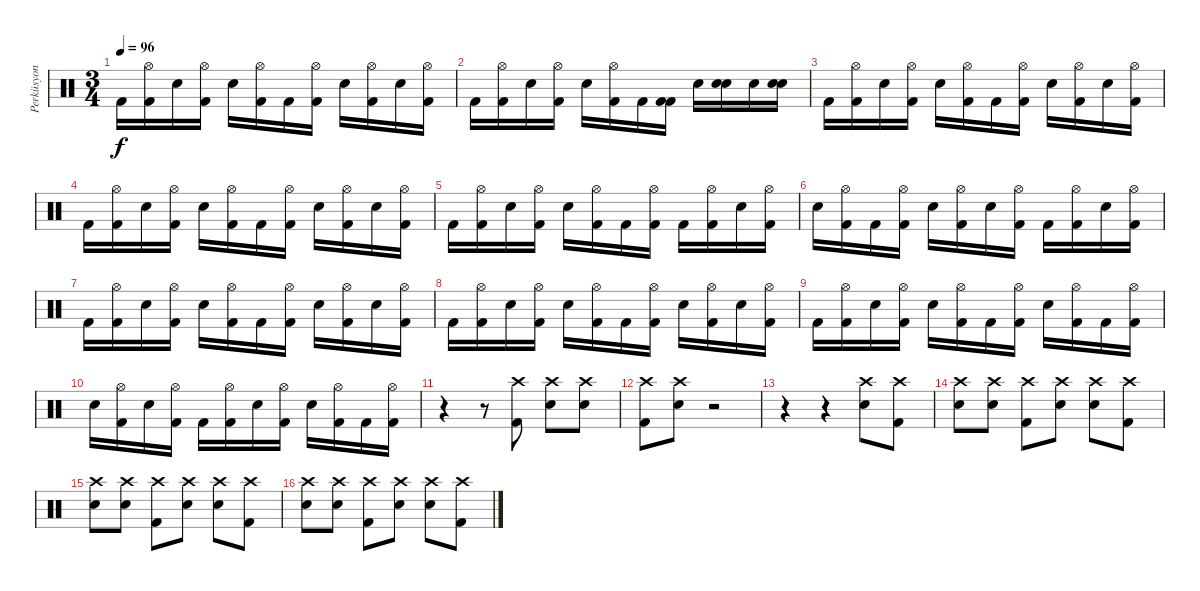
\track ("Perküsyon" "Perküsyon") {instrument percussion}
\staff {score}
\articulation defaults
\ts (3 4)
\tempo 96
\clef neutral
\ks c "Kick (hit) 2".16{dy f}
("Kick (hit) 2" "Hi-Hat (open)").16 "Snare (hit) 2".16 ("Kick (hit) 2" "Hi-Hat (open)").16 "Snare (hit) 2".16 ("Kick (hit) 2" "Hi-Hat (open)").16 "Kick (hit) 2".16 ("Kick (hit) 2" "Hi-Hat (open)").16 "Snare (hit) 2".16 ("Kick (hit) 2" "Hi-Hat (open)").16 "Snare (hit) 2".16 ("Kick (hit) 2" "Hi-Hat (open)").16 |
"Kick (hit) 2".16 ("Kick (hit) 2" "Hi-Hat (open)").16 "Snare (hit) 2".16 ("Kick (hit) 2" "Hi-Hat (open)").16 "Snare (hit) 2".16 ("Kick (hit) 2" "Hi-Hat (open)").16 "Kick (hit) 2".16 ("Kick (hit) 2" "Kick (hit) 2").16 "Snare (hit) 2".16 ("Snare (hit) 2" "Snare (hit) 2").16 "Snare (hit) 2".16 ("Snare (hit) 2" "Snare (hit) 2").16 |
"Kick (hit) 2".16 ("Kick (hit) 2" "Hi-Hat (open)").16 "Snare (hit) 2".16 ("Kick (hit) 2" "Hi-Hat (open)").16 "Snare (hit) 2".16 ("Kick (hit) 2" "Hi-Hat (open)").16 "Kick (hit) 2".16 ("Kick (hit) 2" "Hi-Hat (open)").16 "Snare (hit) 2".16 ("Kick (hit) 2" "Hi-Hat (open)").16 "Snare (hit) 2".16 ("Kick (hit) 2" "Hi-Hat (open)").16 |
"Kick (hit) 2".16 ("Kick (hit) 2" "Hi-Hat (open)").16 "Snare (hit) 2".16 ("Kick (hit) 2" "Hi-Hat (open)").16 "Snare (hit) 2".16 ("Kick (hit) 2" "Hi-Hat (open)").16 "Kick (hit) 2".16 ("Kick (hit) 2" "Hi-Hat (open)").16 "Snare (hit) 2".16 ("Kick (hit) 2" "Hi-Hat (open)").16 "Snare (hit) 2".16 ("Kick (hit) 2" "Hi-Hat (open)").16 |
"Kick (hit) 2".16 ("Kick (hit) 2" "Hi-Hat (open)").16 "Snare (hit) 2".16 ("Kick (hit) 2" "Hi-Hat (open)").16 "Snare (hit) 2".16 ("Kick (hit) 2" "Hi-Hat (open)").16 "Kick (hit) 2".16 ("Kick (hit) 2" "Hi-Hat (open)").16 "Kick (hit) 2".16 ("Kick (hit) 2" "Hi-Hat (open)").16 "Snare (hit) 2".16 ("Kick (hit) 2" "Hi-Hat (open)").16 |
"Snare (hit) 2".16 ("Kick (hit) 2" "Hi-Hat (open)").16 "Kick (hit) 2".16 ("Kick (hit) 2" "Hi-Hat (open)").16 "Snare (hit) 2".16 ("Kick (hit) 2" "Hi-Hat (open)").16 "Snare (hit) 2".16 ("Kick (hit) 2" "Hi-Hat (open)").16 "Kick (hit) 2".16 ("Kick (hit) 2" "Hi-Hat (open)").16 "Snare (hit) 2".16 ("Kick (hit) 2" "Hi-Hat (open)").16 |
"Kick (hit) 2".16 ("Kick (hit) 2" "Hi-Hat (open)").16 "Snare (hit) 2".16 ("Kick (hit) 2" "Hi-Hat (open)").16 "Snare (hit) 2".16 ("Kick (hit) 2" "Hi-Hat (open)").16 "Kick (hit) 2".16 ("Kick (hit) 2" "Hi-Hat (open)").16 "Snare (hit) 2".16 ("Kick (hit) 2" "Hi-Hat (open)").16 "Snare (hit) 2".16 ("Kick (hit) 2" "Hi-Hat (open)").16 |
"Kick (hit) 2".16 ("Kick (hit) 2" "Hi-Hat (open)").16 "Snare (hit) 2".16 ("Kick (hit) 2" "Hi-Hat (open)").16 "Snare (hit) 2".16 ("Kick (hit) 2" "Hi-Hat (open)").16 "Kick (hit) 2".16 ("Kick (hit) 2" "Hi-Hat (open)").16 "Snare (hit) 2".16 ("Kick (hit) 2" "Hi-Hat (open)").16 "Snare (hit) 2".16 ("Kick (hit) 2" "Hi-Hat (open)").16 |
"Kick (hit) 2".16 ("Kick (hit) 2" "Hi-Hat (open)").16 "Snare (hit) 2".16 ("Kick (hit) 2" "Hi-Hat (open)").16 "Snare (hit) 2".16 ("Kick (hit) 2" "Hi-Hat (open)").16 "Kick (hit) 2".16 ("Kick (hit) 2" "Hi-Hat (open)").16 "Snare (hit) 2".16 ("Kick (hit) 2" "Hi-Hat (open)").16 "Kick (hit) 2".16 ("Kick (hit) 2" "Hi-Hat (open)").16 |
"Snare (hit) 2".16 ("Kick (hit) 2" "Hi-Hat (open)").16 "Snare (hit) 2".16 ("Kick (hit) 2" "Hi-Hat (open)").16 "Kick (hit) 2".16 ("Kick (hit) 2" "Hi-Hat (open)").16 "Snare (hit) 2".16 ("Kick (hit) 2" "Hi-Hat (open)").16 "Snare (hit) 2".16 ("Kick (hit) 2" "Hi-Hat (open)").16 "Kick (hit) 2".16 ("Kick (hit) 2" "Hi-Hat (open)").16 |
r.4 r.8 ("Kick (hit) 2" "Crash high (hit)").8 ("Snare (hit) 2" "Crash high (hit)").8 ("Snare (hit) 2" "Crash high (hit)").8 |
("Kick (hit) 2" "Crash high (hit)").8 ("Snare (hit) 2" "Crash high (hit)").8 r.2 |
r.4 r.4 ("Snare (hit) 2" "Crash high (hit)").8 ("Kick (hit) 2" "Crash high (hit)").8 |
("Snare (hit) 2" "Crash high (hit)").8 ("Snare (hit) 2" "Crash high (hit)").8 ("Kick (hit) 2" "Crash high (hit)").8 ("Snare (hit) 2" "Crash high (hit)").8 ("Snare (hit) 2" "Crash high (hit)").8 ("Kick (hit) 2" "Crash high (hit)").8 |
("Snare (hit) 2" "Crash high (hit)").8 ("Snare (hit) 2" "Crash high (hit)").8 ("Kick (hit) 2" "Crash high (hit)").8 ("Snare (hit) 2" "Crash high (hit)").8 ("Snare (hit) 2" "Crash high (hit)").8 ("Kick (hit) 2" "Crash high (hit)").8 |
("Snare (hit) 2" "Crash high (hit)").8 ("Snare (hit) 2" "Crash high (hit)").8 ("Kick (hit) 2" "Crash high (hit)").8 ("Snare (hit) 2" "Crash high (hit)").8 ("Snare (hit) 2" "Crash high (hit)").8 ("Kick (hit) 2" "Crash high (hit)").8
